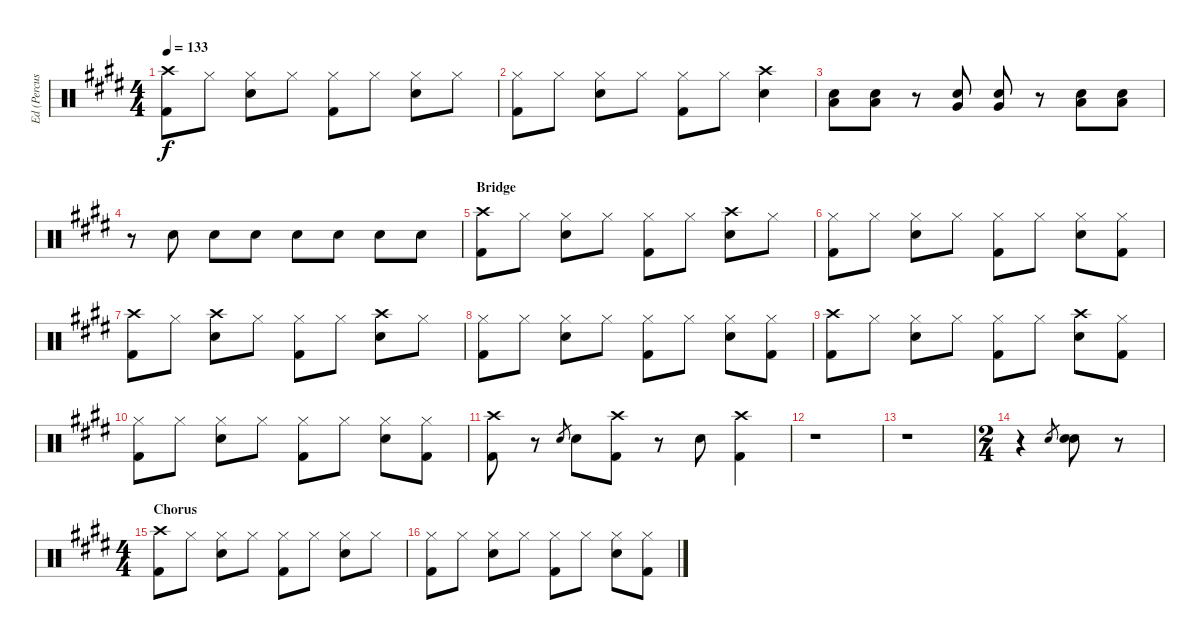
\track ("Ed (Percussion/Drums)" "Ed (Percus") {instrument percussion}
\staff {score}
\articulation defaults
\ts (4 4)
\tempo 133
\clef neutral
\ks e
("Crash high (hit)" "Kick (hit) 2").8{dy f} "Hi-Hat (closed)".8 ("Hi-Hat (closed)" "Snare (hit) 2").8 "Hi-Hat (closed)".8 ("Hi-Hat (closed)" "Kick (hit) 2").8 "Hi-Hat (closed)".8 ("Hi-Hat (closed)" "Snare (hit) 2").8 "Hi-Hat (closed)".8 |
("Hi-Hat (closed)" "Kick (hit) 2").8 "Hi-Hat (closed)".8 ("Hi-Hat (closed)" "Snare (hit) 2").8 "Hi-Hat (closed)".8 ("Hi-Hat (closed)" "Kick (hit) 2").8 "Hi-Hat (closed)".8 ("Crash high (hit)" "Snare (hit) 2").4 |
("Snare (hit) 2" "Low Tom (hit)").8 ("Snare (hit) 2" "Low Tom (hit)").8 r.8 ("Snare (hit) 2" "Very Low Tom (hit)").8 ("Snare (hit) 2" "Very Low Tom (hit)").8 r.8 ("Snare (hit) 2" "Low Floor Tom (hit)").8 ("Snare (hit) 2" "Low Floor Tom (hit)").8 |
r.8 "Snare (hit) 2".8 "Snare (hit) 2".8 "Snare (hit) 2".8 "Snare (hit) 2".8 "Snare (hit) 2".8 "Snare (hit) 2".8 "Snare (hit) 2".8 |
\section ("" "Bridge")
("Crash high (hit)" "Kick (hit) 2").8 "Hi-Hat (closed)".8 ("Hi-Hat (closed)" "Snare (hit) 2").8 "Hi-Hat (closed)".8 ("Hi-Hat (closed)" "Kick (hit) 2").8 "Hi-Hat (closed)".8 ("Crash high (hit)" "Snare (hit) 2").8 "Hi-Hat (closed)".8 |
("Hi-Hat (closed)" "Kick (hit) 2").8 "Hi-Hat (closed)".8 ("Hi-Hat (closed)" "Snare (hit) 2").8 "Hi-Hat (closed)".8 ("Hi-Hat (closed)" "Kick (hit) 2").8 "Hi-Hat (closed)".8 ("Hi-Hat (closed)" "Snare (hit) 2").8 ("Hi-Hat (closed)" "Kick (hit) 2").8 |
("Crash high (hit)" "Kick (hit) 2").8 "Hi-Hat (closed)".8 ("Crash high (hit)" "Snare (hit) 2").8 "Hi-Hat (closed)".8 ("Hi-Hat (closed)" "Kick (hit) 2").8 "Hi-Hat (closed)".8 ("Crash high (hit)" "Snare (hit) 2").8 "Hi-Hat (closed)".8 |
("Hi-Hat (closed)" "Kick (hit) 2").8 "Hi-Hat (closed)".8 ("Hi-Hat (closed)" "Snare (hit) 2").8 "Hi-Hat (closed)".8 ("Hi-Hat (closed)" "Kick (hit) 2").8 "Hi-Hat (closed)".8 ("Hi-Hat (closed)" "Snare (hit) 2").8 ("Hi-Hat (closed)" "Kick (hit) 2").8 |
("Crash high (hit)" "Kick (hit) 2").8 "Hi-Hat (closed)".8 ("Hi-Hat (closed)" "Snare (hit) 2").8 "Hi-Hat (closed)".8 ("Hi-Hat (closed)" "Kick (hit) 2").8 "Hi-Hat (closed)".8 ("Crash high (hit)" "Snare (hit) 2").8 ("Hi-Hat (closed)" "Kick (hit) 2").8 |
("Hi-Hat (closed)" "Kick (hit) 2").8 "Hi-Hat (closed)".8 ("Hi-Hat (closed)" "Snare (hit) 2").8 "Hi-Hat (closed)".8 ("Hi-Hat (closed)" "Kick (hit) 2").8 "Hi-Hat (closed)".8 ("Hi-Hat (closed)" "Snare (hit) 2").8 ("Hi-Hat (closed)" "Kick (hit) 2").8 |
("Crash high (hit)" "Kick (hit) 2").8 r.8 "Snare (hit) 2".8{gr} "Snare (hit) 2".8 ("Crash high (hit)" "Kick (hit) 2").8 r.8 "Snare (hit) 2".8 ("Crash high (hit)" "Kick (hit) 2").4 |
r.1 |
r.1 |
\ts (2 4)
r.4 "Snare (hit) 2".8{gr} ("Snare (hit) 2" "Snare (hit) 2").8 r.8 |
\ts (4 4)
\section ("" "Chorus")
("Crash high (hit)" "Kick (hit) 2").8 "Hi-Hat (closed)".8 ("Hi-Hat (closed)" "Snare (hit) 2").8 "Hi-Hat (closed)".8 ("Hi-Hat (closed)" "Kick (hit) 2").8 "Hi-Hat (closed)".8 ("Hi-Hat (closed)" "Snare (hit) 2").8 "Hi-Hat (closed)".8 |
("Hi-Hat (closed)" "Kick (hit) 2").8 "Hi-Hat (closed)".8 ("Hi-Hat (closed)" "Snare (hit) 2").8 "Hi-Hat (closed)".8 ("Hi-Hat (closed)" "Kick (hit) 2").8 "Hi-Hat (closed)".8 ("Hi-Hat (closed)" "Snare (hit) 2").8 ("Hi-Hat (closed)" "Kick (hit) 2").8
